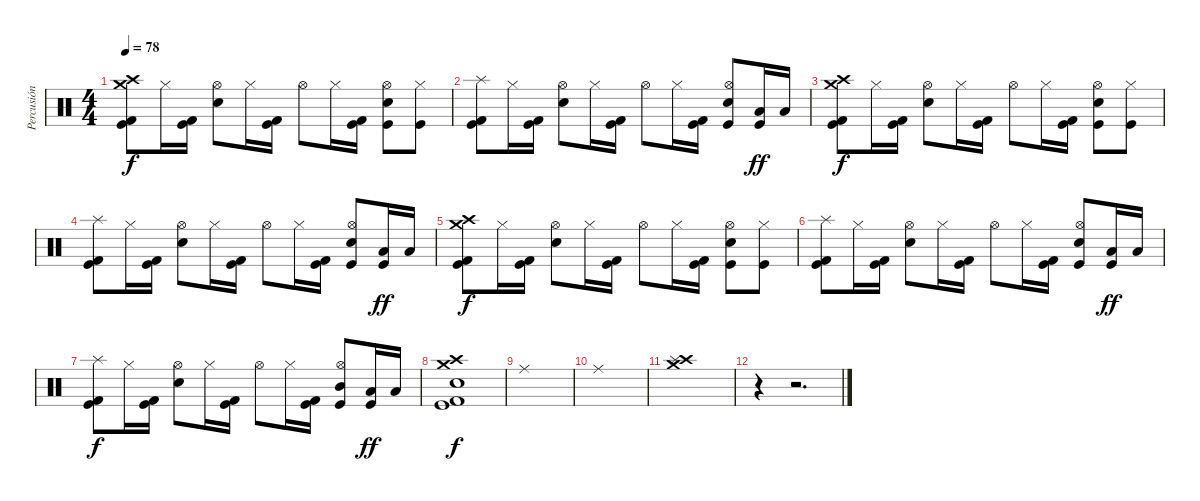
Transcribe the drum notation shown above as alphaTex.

\track ("Percusión" "Percusión") {instrument percussion}
\staff {score}
\articulation defaults
\ts (4 4)
\tempo 78
\clef neutral
\ks c
("Crash high (hit)" "Crash medium (hit)" "Kick (hit) 2" "Kick (hit)").8{dy f} "Hi-Hat (closed)".16 ("Kick (hit) 2" "Kick (hit)").16 ("Hi-Hat (open)" "Snare (hit) 2").8 "Hi-Hat (closed)".16 ("Kick (hit) 2" "Kick (hit)").16 "Hi-Hat (open)".8 "Hi-Hat (closed)".16 ("Kick (hit)" "Kick (hit) 2").16 ("Hi-Hat (open)" "Snare (hit) 2" "Kick (hit)").8 ("Hi-Hat (closed)" "Kick (hit)").8 |
("Splash (hit)" "Kick (hit) 2" "Kick (hit)").8 "Hi-Hat (closed)".16 ("Kick (hit) 2" "Kick (hit)").16 ("Hi-Hat (open)" "Snare (hit) 2").8 "Hi-Hat (closed)".16 ("Kick (hit) 2" "Kick (hit)").16 "Hi-Hat (open)".8 "Hi-Hat (closed)".16 ("Kick (hit)" "Kick (hit) 2").16 ("Hi-Hat (open)" "Snare (hit) 2" "Kick (hit)").8 ("Low Floor Tom (hit)" "Kick (hit)").16{dy ff} "Low Tom (hit)".16 |
("Crash high (hit)" "Crash medium (hit)" "Kick (hit) 2" "Kick (hit)").8{dy f} "Hi-Hat (closed)".16 ("Kick (hit) 2" "Kick (hit)").16 ("Hi-Hat (open)" "Snare (hit) 2").8 "Hi-Hat (closed)".16 ("Kick (hit) 2" "Kick (hit)").16 "Hi-Hat (open)".8 "Hi-Hat (closed)".16 ("Kick (hit)" "Kick (hit) 2").16 ("Hi-Hat (open)" "Snare (hit) 2" "Kick (hit)").8 ("Hi-Hat (closed)" "Kick (hit)").8 |
("Splash (hit)" "Kick (hit) 2" "Kick (hit)").8 "Hi-Hat (closed)".16 ("Kick (hit) 2" "Kick (hit)").16 ("Hi-Hat (open)" "Snare (hit) 2").8 "Hi-Hat (closed)".16 ("Kick (hit) 2" "Kick (hit)").16 "Hi-Hat (open)".8 "Hi-Hat (closed)".16 ("Kick (hit)" "Kick (hit) 2").16 ("Hi-Hat (open)" "Snare (hit) 2" "Kick (hit)").8 ("Low Floor Tom (hit)" "Kick (hit)").16{dy ff} "Low Tom (hit)".16 |
("Crash high (hit)" "Crash medium (hit)" "Kick (hit) 2" "Kick (hit)").8{dy f} "Hi-Hat (closed)".16 ("Kick (hit) 2" "Kick (hit)").16 ("Hi-Hat (open)" "Snare (hit) 2").8 "Hi-Hat (closed)".16 ("Kick (hit) 2" "Kick (hit)").16 "Hi-Hat (open)".8 "Hi-Hat (closed)".16 ("Kick (hit)" "Kick (hit) 2").16 ("Hi-Hat (open)" "Snare (hit) 2" "Kick (hit)").8 ("Hi-Hat (closed)" "Kick (hit)").8 |
("Splash (hit)" "Kick (hit) 2" "Kick (hit)").8 "Hi-Hat (closed)".16 ("Kick (hit) 2" "Kick (hit)").16 ("Hi-Hat (open)" "Snare (hit) 2").8 "Hi-Hat (closed)".16 ("Kick (hit) 2" "Kick (hit)").16 "Hi-Hat (open)".8 "Hi-Hat (closed)".16 ("Kick (hit)" "Kick (hit) 2").16 ("Hi-Hat (open)" "Snare (hit) 2" "Kick (hit)").8 ("Low Floor Tom (hit)" "Kick (hit)").16{dy ff} "Low Tom (hit)".16 |
("Splash (hit)" "Kick (hit) 2" "Kick (hit)").8{dy f} "Hi-Hat (closed)".16 ("Kick (hit) 2" "Kick (hit)").16 ("Hi-Hat (open)" "Snare (hit) 2").8 "Hi-Hat (closed)".16 ("Kick (hit) 2" "Kick (hit)").16 "Hi-Hat (open)".8 "Hi-Hat (closed)".16 ("Kick (hit)" "Kick (hit) 2").16 ("Hi-Hat (open)" "Mid Tom (hit)" "Kick (hit)").8 ("Low Floor Tom (hit)" "Kick (hit)").16{dy ff} "Low Tom (hit)".16 |
("Crash medium (hit)" "Crash high (hit)" "Snare (hit) 2" "Kick (hit) 2" "Kick (hit)").1{dy f} |
"Ride (middle)".1 |
"Ride (middle)".1 |
("Crash medium (hit)" "Crash high (hit)" "Splash (hit)").1 |
r.4 r.2{d}
